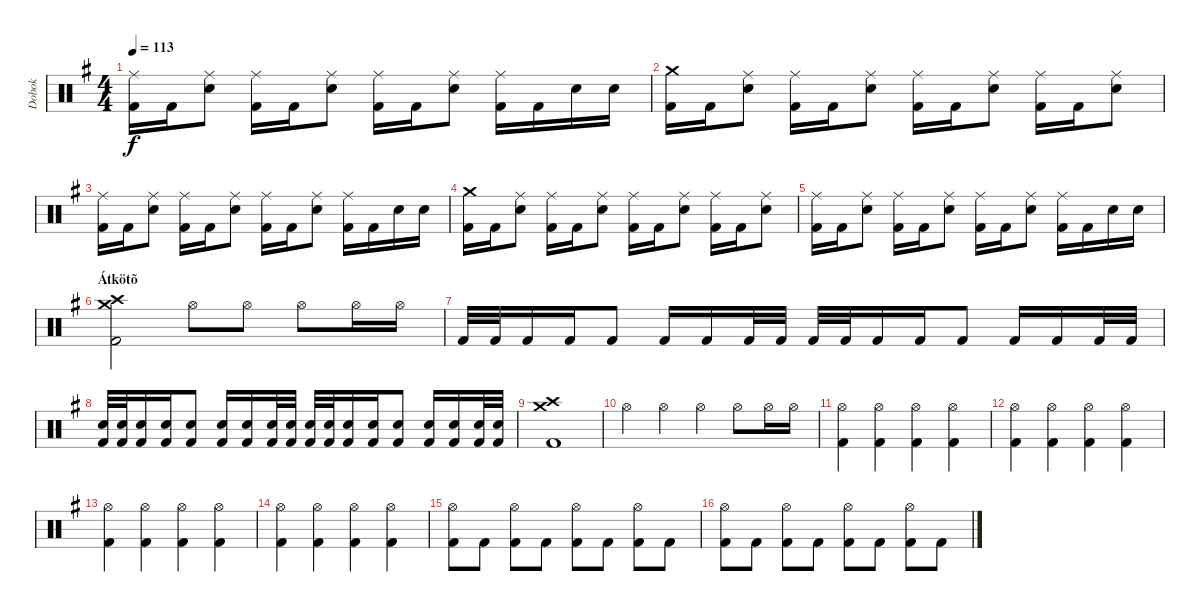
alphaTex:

\track ("Dobok" "Dobok") {instrument percussion}
\staff {score}
\articulation defaults
\ts (4 4)
\tempo 113
\clef neutral
\ks g
("Ride (middle)" "Kick (hit) 2").16{dy f} "Kick (hit) 2".16 ("Ride (middle)" "Snare (hit) 2").8 ("Ride (middle)" "Kick (hit) 2").16 "Kick (hit) 2".16 ("Ride (middle)" "Snare (hit) 2").8 ("Ride (middle)" "Kick (hit) 2").16 "Kick (hit) 2".16 ("Ride (middle)" "Snare (hit) 2").8 ("Ride (middle)" "Kick (hit) 2").16 "Kick (hit) 2".16 "Snare (hit) 2".16 "Snare (hit) 2".16 |
("Crash medium (hit)" "Kick (hit) 2").16 "Kick (hit) 2".16 ("Ride (middle)" "Snare (hit) 2").8 ("Ride (middle)" "Kick (hit) 2").16 "Kick (hit) 2".16 ("Ride (middle)" "Snare (hit) 2").8 ("Ride (middle)" "Kick (hit) 2").16 "Kick (hit) 2".16 ("Ride (middle)" "Snare (hit) 2").8 ("Ride (middle)" "Kick (hit) 2").16 "Kick (hit) 2".16 ("Ride (middle)" "Snare (hit) 2").8 |
("Ride (middle)" "Kick (hit) 2").16 "Kick (hit) 2".16 ("Ride (middle)" "Snare (hit) 2").8 ("Ride (middle)" "Kick (hit) 2").16 "Kick (hit) 2".16 ("Ride (middle)" "Snare (hit) 2").8 ("Ride (middle)" "Kick (hit) 2").16 "Kick (hit) 2".16 ("Ride (middle)" "Snare (hit) 2").8 ("Ride (middle)" "Kick (hit) 2").16 "Kick (hit) 2".16 "Snare (hit) 2".16 "Snare (hit) 2".16 |
("Crash medium (hit)" "Kick (hit) 2").16 "Kick (hit) 2".16 ("Ride (middle)" "Snare (hit) 2").8 ("Ride (middle)" "Kick (hit) 2").16 "Kick (hit) 2".16 ("Ride (middle)" "Snare (hit) 2").8 ("Ride (middle)" "Kick (hit) 2").16 "Kick (hit) 2".16 ("Ride (middle)" "Snare (hit) 2").8 ("Ride (middle)" "Kick (hit) 2").16 "Kick (hit) 2".16 ("Ride (middle)" "Snare (hit) 2").8 |
("Ride (middle)" "Kick (hit) 2").16 "Kick (hit) 2".16 ("Ride (middle)" "Snare (hit) 2").8 ("Ride (middle)" "Kick (hit) 2").16 "Kick (hit) 2".16 ("Ride (middle)" "Snare (hit) 2").8 ("Ride (middle)" "Kick (hit) 2").16 "Kick (hit) 2".16 ("Ride (middle)" "Snare (hit) 2").8 ("Ride (middle)" "Kick (hit) 2").16 "Kick (hit) 2".16 "Snare (hit) 2".16 "Snare (hit) 2".16 |
\section ("" "Átkötõ")
("Crash medium (hit)" "Crash high (hit)" "Kick (hit) 2").2 "Hi-Hat (open)".8 "Hi-Hat (open)".8 "Hi-Hat (open)".8 "Hi-Hat (open)".16 "Hi-Hat (open)".16 |
"Kick (hit) 2".32 "Kick (hit) 2".32 "Kick (hit) 2".16 "Kick (hit) 2".16 "Kick (hit) 2".8 "Kick (hit) 2".16 "Kick (hit) 2".16 "Kick (hit) 2".32 "Kick (hit) 2".32 "Kick (hit) 2".32 "Kick (hit) 2".32 "Kick (hit) 2".16 "Kick (hit) 2".16 "Kick (hit) 2".8 "Kick (hit) 2".16 "Kick (hit) 2".16 "Kick (hit) 2".32 "Kick (hit) 2".32 |
("Snare (hit) 2" "Kick (hit) 2").32 ("Snare (hit) 2" "Kick (hit) 2").32 ("Snare (hit) 2" "Kick (hit) 2").16 ("Snare (hit) 2" "Kick (hit) 2").16 ("Snare (hit) 2" "Kick (hit) 2").8 ("Snare (hit) 2" "Kick (hit) 2").16 ("Snare (hit) 2" "Kick (hit) 2").16 ("Snare (hit) 2" "Kick (hit) 2").32 ("Snare (hit) 2" "Kick (hit) 2").32 ("Snare (hit) 2" "Kick (hit) 2").32 ("Snare (hit) 2" "Kick (hit) 2").32 ("Snare (hit) 2" "Kick (hit) 2").16 ("Snare (hit) 2" "Kick (hit) 2").16 ("Snare (hit) 2" "Kick (hit) 2").8 ("Snare (hit) 2" "Kick (hit) 2").16 ("Snare (hit) 2" "Kick (hit) 2").16 ("Snare (hit) 2" "Kick (hit) 2").32 ("Snare (hit) 2" "Kick (hit) 2").32 |
("Crash medium (hit)" "Crash high (hit)" "Kick (hit) 2").1 |
"Hi-Hat (open)".4 "Hi-Hat (open)".4 "Hi-Hat (open)".4 "Hi-Hat (open)".8 "Hi-Hat (open)".16 "Hi-Hat (open)".16 |
("Hi-Hat (open)" "Kick (hit) 2").4 ("Hi-Hat (open)" "Kick (hit) 2").4 ("Hi-Hat (open)" "Kick (hit) 2").4 ("Hi-Hat (open)" "Kick (hit) 2").4 |
("Hi-Hat (open)" "Kick (hit) 2").4 ("Hi-Hat (open)" "Kick (hit) 2").4 ("Hi-Hat (open)" "Kick (hit) 2").4 ("Hi-Hat (open)" "Kick (hit) 2").4 |
("Hi-Hat (open)" "Kick (hit) 2").4 ("Hi-Hat (open)" "Kick (hit) 2").4 ("Hi-Hat (open)" "Kick (hit) 2").4 ("Hi-Hat (open)" "Kick (hit) 2").4 |
("Hi-Hat (open)" "Kick (hit) 2").4 ("Hi-Hat (open)" "Kick (hit) 2").4 ("Hi-Hat (open)" "Kick (hit) 2").4 ("Hi-Hat (open)" "Kick (hit) 2").4 |
("Hi-Hat (open)" "Kick (hit) 2").8 "Kick (hit) 2".8 ("Hi-Hat (open)" "Kick (hit) 2").8 "Kick (hit) 2".8 ("Hi-Hat (open)" "Kick (hit) 2").8 "Kick (hit) 2".8 ("Hi-Hat (open)" "Kick (hit) 2").8 "Kick (hit) 2".8 |
("Hi-Hat (open)" "Kick (hit) 2").8 "Kick (hit) 2".8 ("Hi-Hat (open)" "Kick (hit) 2").8 "Kick (hit) 2".8 ("Hi-Hat (open)" "Kick (hit) 2").8 "Kick (hit) 2".8 ("Hi-Hat (open)" "Kick (hit) 2").8 "Kick (hit) 2".8
